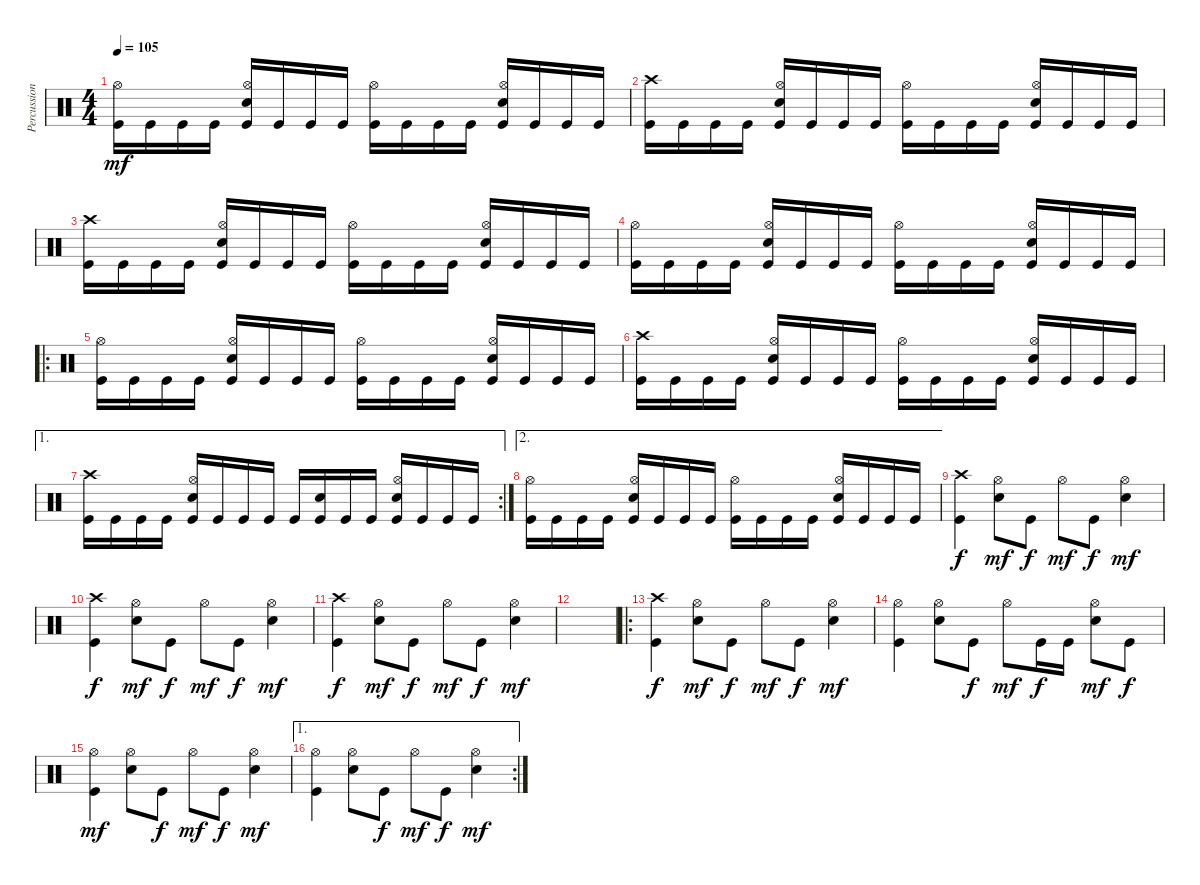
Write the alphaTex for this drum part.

\track ("Percussions" "Percussion") {instrument percussion}
\staff {score}
\articulation defaults
\ts (4 4)
\tempo 105
\clef neutral
\ks c
("Kick (hit)" "Hi-Hat (open)").16{dy mf} "Kick (hit)".16 "Kick (hit)".16 "Kick (hit)".16 ("Kick (hit)" "Electric Snare (hit)" "Hi-Hat (open)").16 "Kick (hit)".16 "Kick (hit)".16 "Kick (hit)".16 ("Kick (hit)" "Hi-Hat (open)").16 "Kick (hit)".16 "Kick (hit)".16 "Kick (hit)".16 ("Kick (hit)" "Electric Snare (hit)" "Hi-Hat (open)").16 "Kick (hit)".16 "Kick (hit)".16 "Kick (hit)".16 |
("Kick (hit)" "Crash high (hit)").16 "Kick (hit)".16 "Kick (hit)".16 "Kick (hit)".16 ("Kick (hit)" "Electric Snare (hit)" "Hi-Hat (open)").16 "Kick (hit)".16 "Kick (hit)".16 "Kick (hit)".16 ("Kick (hit)" "Hi-Hat (open)").16 "Kick (hit)".16 "Kick (hit)".16 "Kick (hit)".16 ("Kick (hit)" "Electric Snare (hit)" "Hi-Hat (open)").16 "Kick (hit)".16 "Kick (hit)".16 "Kick (hit)".16 |
("Kick (hit)" "Crash high (hit)").16 "Kick (hit)".16 "Kick (hit)".16 "Kick (hit)".16 ("Kick (hit)" "Electric Snare (hit)" "Hi-Hat (open)").16 "Kick (hit)".16 "Kick (hit)".16 "Kick (hit)".16 ("Kick (hit)" "Hi-Hat (open)").16 "Kick (hit)".16 "Kick (hit)".16 "Kick (hit)".16 ("Kick (hit)" "Electric Snare (hit)" "Hi-Hat (open)").16 "Kick (hit)".16 "Kick (hit)".16 "Kick (hit)".16 |
("Kick (hit)" "Hi-Hat (open)").16 "Kick (hit)".16 "Kick (hit)".16 "Kick (hit)".16 ("Kick (hit)" "Electric Snare (hit)" "Hi-Hat (open)").16 "Kick (hit)".16 "Kick (hit)".16 "Kick (hit)".16 ("Kick (hit)" "Hi-Hat (open)").16 "Kick (hit)".16 "Kick (hit)".16 "Kick (hit)".16 ("Kick (hit)" "Electric Snare (hit)" "Hi-Hat (open)").16 "Kick (hit)".16 "Kick (hit)".16 "Kick (hit)".16 |
\ro
("Kick (hit)" "Hi-Hat (open)").16 "Kick (hit)".16 "Kick (hit)".16 "Kick (hit)".16 ("Kick (hit)" "Electric Snare (hit)" "Hi-Hat (open)").16 "Kick (hit)".16 "Kick (hit)".16 "Kick (hit)".16 ("Kick (hit)" "Hi-Hat (open)").16 "Kick (hit)".16 "Kick (hit)".16 "Kick (hit)".16 ("Kick (hit)" "Electric Snare (hit)" "Hi-Hat (open)").16 "Kick (hit)".16 "Kick (hit)".16 "Kick (hit)".16 |
("Kick (hit)" "Crash high (hit)").16 "Kick (hit)".16 "Kick (hit)".16 "Kick (hit)".16 ("Kick (hit)" "Electric Snare (hit)" "Hi-Hat (open)").16 "Kick (hit)".16 "Kick (hit)".16 "Kick (hit)".16 ("Kick (hit)" "Hi-Hat (open)").16 "Kick (hit)".16 "Kick (hit)".16 "Kick (hit)".16 ("Kick (hit)" "Electric Snare (hit)" "Hi-Hat (open)").16 "Kick (hit)".16 "Kick (hit)".16 "Kick (hit)".16 |
\ae 1
\rc 2
("Kick (hit)" "Crash high (hit)").16 "Kick (hit)".16 "Kick (hit)".16 "Kick (hit)".16 ("Kick (hit)" "Electric Snare (hit)" "Hi-Hat (open)").16 "Kick (hit)".16 "Kick (hit)".16 "Kick (hit)".16 "Kick (hit)".16 ("Kick (hit)" "Electric Snare (hit)").16 "Kick (hit)".16 "Kick (hit)".16 ("Kick (hit)" "Electric Snare (hit)" "Hi-Hat (open)").16 "Kick (hit)".16 "Kick (hit)".16 "Kick (hit)".16 |
\ae 2
("Kick (hit)" "Hi-Hat (open)").16 "Kick (hit)".16 "Kick (hit)".16 "Kick (hit)".16 ("Kick (hit)" "Electric Snare (hit)" "Hi-Hat (open)").16 "Kick (hit)".16 "Kick (hit)".16 "Kick (hit)".16 ("Kick (hit)" "Hi-Hat (open)").16 "Kick (hit)".16 "Kick (hit)".16 "Kick (hit)".16 ("Kick (hit)" "Electric Snare (hit)" "Hi-Hat (open)").16 "Kick (hit)".16 "Kick (hit)".16 "Kick (hit)".16 |
("Kick (hit)" "Crash high (hit)").4{dy f} ("Electric Snare (hit)" "Hi-Hat (open)").8{dy mf} "Kick (hit)".8{dy f} "Hi-Hat (open)".8{dy mf} "Kick (hit)".8{dy f} ("Electric Snare (hit)" "Hi-Hat (open)").4{dy mf} |
("Kick (hit)" "Crash high (hit)").4{dy f} ("Electric Snare (hit)" "Hi-Hat (open)").8{dy mf} "Kick (hit)".8{dy f} "Hi-Hat (open)".8{dy mf} "Kick (hit)".8{dy f} ("Electric Snare (hit)" "Hi-Hat (open)").4{dy mf} |
("Kick (hit)" "Crash high (hit)").4{dy f} ("Electric Snare (hit)" "Hi-Hat (open)").8{dy mf} "Kick (hit)".8{dy f} "Hi-Hat (open)".8{dy mf} "Kick (hit)".8{dy f} ("Electric Snare (hit)" "Hi-Hat (open)").4{dy mf} |
|
\ro
("Kick (hit)" "Crash high (hit)").4{dy f} ("Electric Snare (hit)" "Hi-Hat (open)").8{dy mf} "Kick (hit)".8{dy f} "Hi-Hat (open)".8{dy mf} "Kick (hit)".8{dy f} ("Electric Snare (hit)" "Hi-Hat (open)").4{dy mf} |
("Kick (hit)" "Hi-Hat (open)").4 ("Electric Snare (hit)" "Hi-Hat (open)").8 "Kick (hit)".8{dy f} "Hi-Hat (open)".8{dy mf} "Kick (hit)".16{dy f} "Kick (hit)".16 ("Electric Snare (hit)" "Hi-Hat (open)").8{dy mf} "Kick (hit)".8{dy f} |
("Kick (hit)" "Hi-Hat (open)").4{dy mf} ("Electric Snare (hit)" "Hi-Hat (open)").8 "Kick (hit)".8{dy f} "Hi-Hat (open)".8{dy mf} "Kick (hit)".8{dy f} ("Electric Snare (hit)" "Hi-Hat (open)").4{dy mf} |
\ae 1
\rc 2
("Kick (hit)" "Hi-Hat (open)").4 ("Electric Snare (hit)" "Hi-Hat (open)").8 "Kick (hit)".8{dy f} "Hi-Hat (open)".8{dy mf} "Kick (hit)".8{dy f} ("Electric Snare (hit)" "Hi-Hat (open)").4{dy mf}
